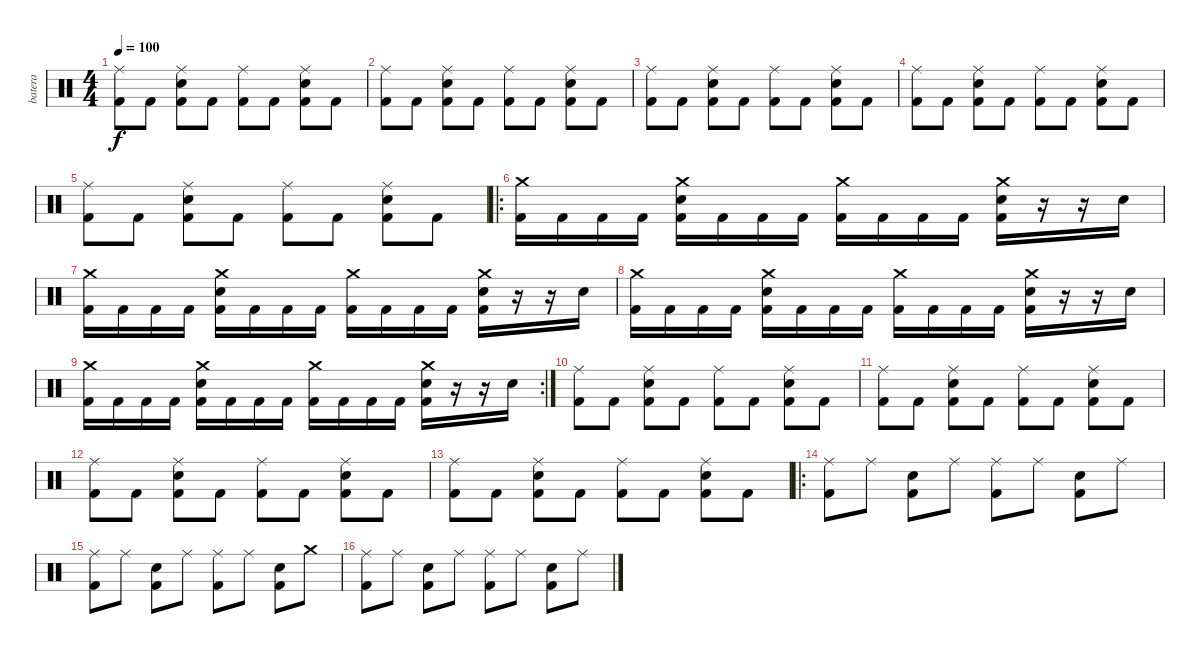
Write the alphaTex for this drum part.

\track ("batera" "batera") {instrument percussion}
\staff {score}
\articulation defaults
\ts (4 4)
\tempo 100
\clef neutral
\ks c
("Ride (middle)" "Kick (hit) 2").8{dy f} "Kick (hit) 2".8 ("Ride (middle)" "Electric Snare (hit)" "Kick (hit) 2").8 "Kick (hit) 2".8 ("Ride (middle)" "Kick (hit) 2").8 "Kick (hit) 2".8 ("Ride (middle)" "Electric Snare (hit)" "Kick (hit) 2").8 "Kick (hit) 2".8 |
("Ride (middle)" "Kick (hit) 2").8 "Kick (hit) 2".8 ("Ride (middle)" "Electric Snare (hit)" "Kick (hit) 2").8 "Kick (hit) 2".8 ("Ride (middle)" "Kick (hit) 2").8 "Kick (hit) 2".8 ("Ride (middle)" "Electric Snare (hit)" "Kick (hit) 2").8 "Kick (hit) 2".8 |
("Ride (middle)" "Kick (hit) 2").8 "Kick (hit) 2".8 ("Ride (middle)" "Electric Snare (hit)" "Kick (hit) 2").8 "Kick (hit) 2".8 ("Ride (middle)" "Kick (hit) 2").8 "Kick (hit) 2".8 ("Ride (middle)" "Electric Snare (hit)" "Kick (hit) 2").8 "Kick (hit) 2".8 |
("Ride (middle)" "Kick (hit) 2").8 "Kick (hit) 2".8 ("Ride (middle)" "Electric Snare (hit)" "Kick (hit) 2").8 "Kick (hit) 2".8 ("Ride (middle)" "Kick (hit) 2").8 "Kick (hit) 2".8 ("Ride (middle)" "Electric Snare (hit)" "Kick (hit) 2").8 "Kick (hit) 2".8 |
("Ride (middle)" "Kick (hit) 2").8 "Kick (hit) 2".8 ("Ride (middle)" "Electric Snare (hit)" "Kick (hit) 2").8 "Kick (hit) 2".8 ("Ride (middle)" "Kick (hit) 2").8 "Kick (hit) 2".8 ("Ride (middle)" "Electric Snare (hit)" "Kick (hit) 2").8 "Kick (hit) 2".8 |
\ro
("Crash medium (hit)" "Kick (hit) 2").16 "Kick (hit) 2".16 "Kick (hit) 2".16 "Kick (hit) 2".16 ("Crash medium (hit)" "Electric Snare (hit)" "Kick (hit) 2").16 "Kick (hit) 2".16 "Kick (hit) 2".16 "Kick (hit) 2".16 ("Crash medium (hit)" "Kick (hit) 2").16 "Kick (hit) 2".16 "Kick (hit) 2".16 "Kick (hit) 2".16 ("Crash medium (hit)" "Electric Snare (hit)" "Kick (hit) 2").16 r.16 r.16 "Snare (hit)".16 |
("Crash medium (hit)" "Kick (hit) 2").16 "Kick (hit) 2".16 "Kick (hit) 2".16 "Kick (hit) 2".16 ("Crash medium (hit)" "Electric Snare (hit)" "Kick (hit) 2").16 "Kick (hit) 2".16 "Kick (hit) 2".16 "Kick (hit) 2".16 ("Crash medium (hit)" "Kick (hit) 2").16 "Kick (hit) 2".16 "Kick (hit) 2".16 "Kick (hit) 2".16 ("Crash medium (hit)" "Electric Snare (hit)" "Kick (hit) 2").16 r.16 r.16 "Snare (hit)".16 |
("Crash medium (hit)" "Kick (hit) 2").16 "Kick (hit) 2".16 "Kick (hit) 2".16 "Kick (hit) 2".16 ("Crash medium (hit)" "Electric Snare (hit)" "Kick (hit) 2").16 "Kick (hit) 2".16 "Kick (hit) 2".16 "Kick (hit) 2".16 ("Crash medium (hit)" "Kick (hit) 2").16 "Kick (hit) 2".16 "Kick (hit) 2".16 "Kick (hit) 2".16 ("Crash medium (hit)" "Electric Snare (hit)" "Kick (hit) 2").16 r.16 r.16 "Snare (hit)".16 |
\rc 2
("Crash medium (hit)" "Kick (hit) 2").16 "Kick (hit) 2".16 "Kick (hit) 2".16 "Kick (hit) 2".16 ("Crash medium (hit)" "Electric Snare (hit)" "Kick (hit) 2").16 "Kick (hit) 2".16 "Kick (hit) 2".16 "Kick (hit) 2".16 ("Crash medium (hit)" "Kick (hit) 2").16 "Kick (hit) 2".16 "Kick (hit) 2".16 "Kick (hit) 2".16 ("Crash medium (hit)" "Electric Snare (hit)" "Kick (hit) 2").16 r.16 r.16 "Snare (hit)".16 |
("Ride (middle)" "Kick (hit) 2").8 "Kick (hit) 2".8 ("Ride (middle)" "Electric Snare (hit)" "Kick (hit) 2").8 "Kick (hit) 2".8 ("Ride (middle)" "Kick (hit) 2").8 "Kick (hit) 2".8 ("Ride (middle)" "Electric Snare (hit)" "Kick (hit) 2").8 "Kick (hit) 2".8 |
("Ride (middle)" "Kick (hit) 2").8 "Kick (hit) 2".8 ("Ride (middle)" "Electric Snare (hit)" "Kick (hit) 2").8 "Kick (hit) 2".8 ("Ride (middle)" "Kick (hit) 2").8 "Kick (hit) 2".8 ("Ride (middle)" "Electric Snare (hit)" "Kick (hit) 2").8 "Kick (hit) 2".8 |
("Ride (middle)" "Kick (hit) 2").8 "Kick (hit) 2".8 ("Ride (middle)" "Electric Snare (hit)" "Kick (hit) 2").8 "Kick (hit) 2".8 ("Ride (middle)" "Kick (hit) 2").8 "Kick (hit) 2".8 ("Ride (middle)" "Electric Snare (hit)" "Kick (hit) 2").8 "Kick (hit) 2".8 |
("Ride (middle)" "Kick (hit) 2").8 "Kick (hit) 2".8 ("Ride (middle)" "Electric Snare (hit)" "Kick (hit) 2").8 "Kick (hit) 2".8 ("Ride (middle)" "Kick (hit) 2").8 "Kick (hit) 2".8 ("Ride (middle)" "Electric Snare (hit)" "Kick (hit) 2").8 "Kick (hit) 2".8 |
\ro
("Ride (middle)" "Kick (hit) 2").8 "Ride (middle)".8 ("Electric Snare (hit)" "Kick (hit) 2").8 "Ride (middle)".8 ("Ride (middle)" "Kick (hit) 2").8 "Ride (middle)".8 ("Electric Snare (hit)" "Kick (hit) 2").8 "Ride (middle)".8 |
("Ride (middle)" "Kick (hit) 2").8 "Ride (middle)".8 ("Electric Snare (hit)" "Kick (hit) 2").8 "Ride (middle)".8 ("Ride (middle)" "Kick (hit) 2").8 "Ride (middle)".8 ("Electric Snare (hit)" "Kick (hit) 2").8 "Crash medium (hit)".8 |
("Ride (middle)" "Kick (hit) 2").8 "Ride (middle)".8 ("Electric Snare (hit)" "Kick (hit) 2").8 "Ride (middle)".8 ("Ride (middle)" "Kick (hit) 2").8 "Ride (middle)".8 ("Electric Snare (hit)" "Kick (hit) 2").8 "Ride (middle)".8
